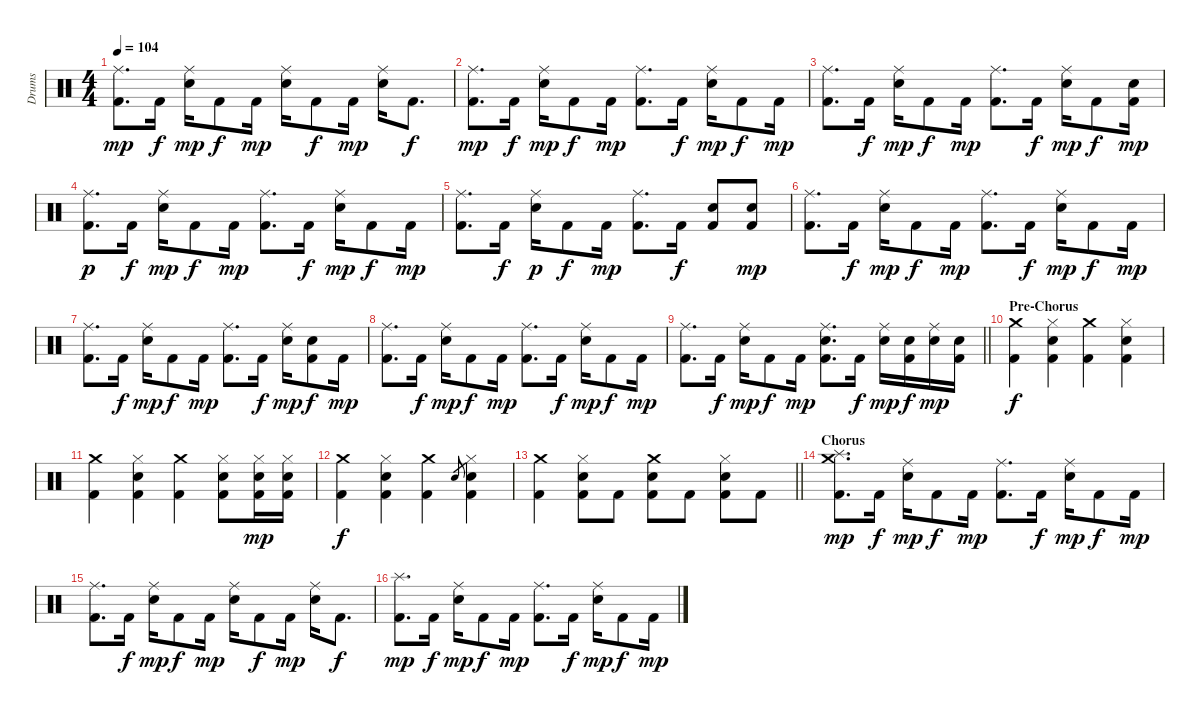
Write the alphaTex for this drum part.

\track ("Drums" "Drums") {instrument percussion}
\staff {score}
\articulation defaults
\ts (4 4)
\tempo 104
\clef neutral
\ks c
("Ride (middle)" "Kick (hit) 2").8{d dy mp} "Kick (hit) 2".16{dy f} ("Ride (middle)" "Electric Snare (hit)").16{dy mp} "Kick (hit) 2".8{dy f} "Kick (hit) 2".16{dy mp} ("Ride (middle)" "Electric Snare (hit)").16 "Kick (hit) 2".8{dy f} "Kick (hit) 2".16{dy mp} ("Ride (middle)" "Electric Snare (hit)").16 "Kick (hit) 2".8{d dy f} |
("Ride (middle)" "Kick (hit) 2").8{d dy mp} "Kick (hit) 2".16{dy f} ("Ride (middle)" "Electric Snare (hit)").16{dy mp} "Kick (hit) 2".8{dy f} "Kick (hit) 2".16{dy mp} ("Ride (middle)" "Kick (hit) 2").8{d} "Kick (hit) 2".16{dy f} ("Ride (middle)" "Electric Snare (hit)").16{dy mp} "Kick (hit) 2".8{dy f} "Kick (hit) 2".16{dy mp} |
("Ride (middle)" "Kick (hit) 2").8{d} "Kick (hit) 2".16{dy f} ("Ride (middle)" "Electric Snare (hit)").16{dy mp} "Kick (hit) 2".8{dy f} "Kick (hit) 2".16{dy mp} ("Ride (middle)" "Kick (hit) 2").8{d} "Kick (hit) 2".16{dy f} ("Ride (middle)" "Electric Snare (hit)").16{dy mp} "Kick (hit) 2".8{dy f} ("Electric Snare (hit)" "Kick (hit) 2").16{dy mp} |
("Ride (middle)" "Kick (hit) 2").8{d dy p} "Kick (hit) 2".16{dy f} ("Ride (middle)" "Electric Snare (hit)").16{dy mp} "Kick (hit) 2".8{dy f} "Kick (hit) 2".16{dy mp} ("Ride (middle)" "Kick (hit) 2").8{d} "Kick (hit) 2".16{dy f} ("Ride (middle)" "Electric Snare (hit)").16{dy mp} "Kick (hit) 2".8{dy f} "Kick (hit) 2".16{dy mp} |
("Ride (middle)" "Kick (hit) 2").8{d} "Kick (hit) 2".16{dy f} ("Ride (middle)" "Electric Snare (hit)").16{dy p} "Kick (hit) 2".8{dy f} "Kick (hit) 2".16{dy mp} ("Ride (middle)" "Kick (hit) 2").8{d} "Kick (hit) 2".16{dy f} ("Electric Snare (hit)" "Kick (hit) 2").8 ("Electric Snare (hit)" "Kick (hit) 2").8{dy mp} |
("Ride (middle)" "Kick (hit) 2").8{d} "Kick (hit) 2".16{dy f} ("Ride (middle)" "Electric Snare (hit)").16{dy mp} "Kick (hit) 2".8{dy f} "Kick (hit) 2".16{dy mp} ("Ride (middle)" "Kick (hit) 2").8{d} "Kick (hit) 2".16{dy f} ("Ride (middle)" "Electric Snare (hit)").16{dy mp} "Kick (hit) 2".8{dy f} "Kick (hit) 2".16{dy mp} |
("Ride (middle)" "Kick (hit) 2").8{d} "Kick (hit) 2".16{dy f} ("Ride (middle)" "Electric Snare (hit)").16{dy mp} "Kick (hit) 2".8{dy f} "Kick (hit) 2".16{dy mp} ("Ride (middle)" "Kick (hit) 2").8{d} "Kick (hit) 2".16{dy f} ("Ride (middle)" "Electric Snare (hit)").16{dy mp} ("Electric Snare (hit)" "Kick (hit) 2").8{dy f} "Kick (hit) 2".16{dy mp} |
("Ride (middle)" "Kick (hit) 2").8{d} "Kick (hit) 2".16{dy f} ("Ride (middle)" "Electric Snare (hit)").16{dy mp} "Kick (hit) 2".8{dy f} "Kick (hit) 2".16{dy mp} ("Ride (middle)" "Kick (hit) 2").8{d} "Kick (hit) 2".16{dy f} ("Ride (middle)" "Electric Snare (hit)").16{dy mp} "Kick (hit) 2".8{dy f} "Kick (hit) 2".16{dy mp} |
\barLineRight lightlight
("Ride (middle)" "Kick (hit) 2").8{d} "Kick (hit) 2".16{dy f} ("Ride (middle)" "Electric Snare (hit)").16{dy mp} "Kick (hit) 2".8{dy f} "Kick (hit) 2".16{dy mp} ("Ride (middle)" "Electric Snare (hit)" "Kick (hit) 2").8{d} "Kick (hit) 2".16{dy f} ("Ride (middle)" "Electric Snare (hit)").16{dy mp} ("Electric Snare (hit)" "Kick (hit) 2").16{dy f} ("Ride (middle)" "Electric Snare (hit)").16{dy mp} ("Electric Snare (hit)" "Kick (hit) 2").16 |
\section ("" "Pre-Chorus")
("Crash medium (hit)" "Kick (hit) 2").4{dy f} ("Hi-Hat (closed)" "Electric Snare (hit)" "Kick (hit) 2").4 ("Crash medium (hit)" "Kick (hit) 2").4 ("Hi-Hat (closed)" "Electric Snare (hit)" "Kick (hit) 2").4 |
("Crash medium (hit)" "Kick (hit) 2").4 ("Hi-Hat (closed)" "Electric Snare (hit)" "Kick (hit) 2").4 ("Crash medium (hit)" "Kick (hit) 2").4 ("Hi-Hat (closed)" "Electric Snare (hit)" "Kick (hit) 2").8 ("Hi-Hat (closed)" "Electric Snare (hit)" "Kick (hit) 2").16{dy mp} ("Hi-Hat (closed)" "Electric Snare (hit)" "Kick (hit) 2").16 |
("Crash medium (hit)" "Kick (hit) 2").4{dy f} ("Hi-Hat (closed)" "Electric Snare (hit)" "Kick (hit) 2").4 ("Crash medium (hit)" "Kick (hit) 2").4 "Electric Snare (hit)".8{gr} ("Hi-Hat (closed)" "Electric Snare (hit)" "Kick (hit) 2").4 |
\barLineRight lightlight
("Crash medium (hit)" "Kick (hit) 2").4 ("Hi-Hat (closed)" "Electric Snare (hit)" "Kick (hit) 2").8 "Kick (hit) 2".8 ("Crash medium (hit)" "Electric Snare (hit)" "Kick (hit) 2").8 "Kick (hit) 2".8 ("Hi-Hat (closed)" "Electric Snare (hit)" "Kick (hit) 2").8 "Kick (hit) 2".8 |
\section ("" "Chorus")
("Splash (hit)" "Crash medium (hit)" "Kick (hit) 2").8{d dy mp} "Kick (hit) 2".16{dy f} ("Ride (middle)" "Electric Snare (hit)").16{dy mp} "Kick (hit) 2".8{dy f} "Kick (hit) 2".16{dy mp} ("Ride (middle)" "Kick (hit) 2").8{d} "Kick (hit) 2".16{dy f} ("Ride (middle)" "Electric Snare (hit)").16{dy mp} "Kick (hit) 2".8{dy f} "Kick (hit) 2".16{dy mp} |
("Ride (middle)" "Kick (hit) 2").8{d} "Kick (hit) 2".16{dy f} ("Ride (middle)" "Electric Snare (hit)").16{dy mp} "Kick (hit) 2".8{dy f} "Kick (hit) 2".16{dy mp} ("Ride (middle)" "Electric Snare (hit)").16 "Kick (hit) 2".8{dy f} "Kick (hit) 2".16{dy mp} ("Ride (middle)" "Electric Snare (hit)").16 "Kick (hit) 2".8{d dy f} |
("Splash (hit)" "Kick (hit) 2").8{d dy mp} "Kick (hit) 2".16{dy f} ("Ride (middle)" "Electric Snare (hit)").16{dy mp} "Kick (hit) 2".8{dy f} "Kick (hit) 2".16{dy mp} ("Ride (middle)" "Kick (hit) 2").8{d} "Kick (hit) 2".16{dy f} ("Ride (middle)" "Electric Snare (hit)").16{dy mp} "Kick (hit) 2".8{dy f} "Kick (hit) 2".16{dy mp}
